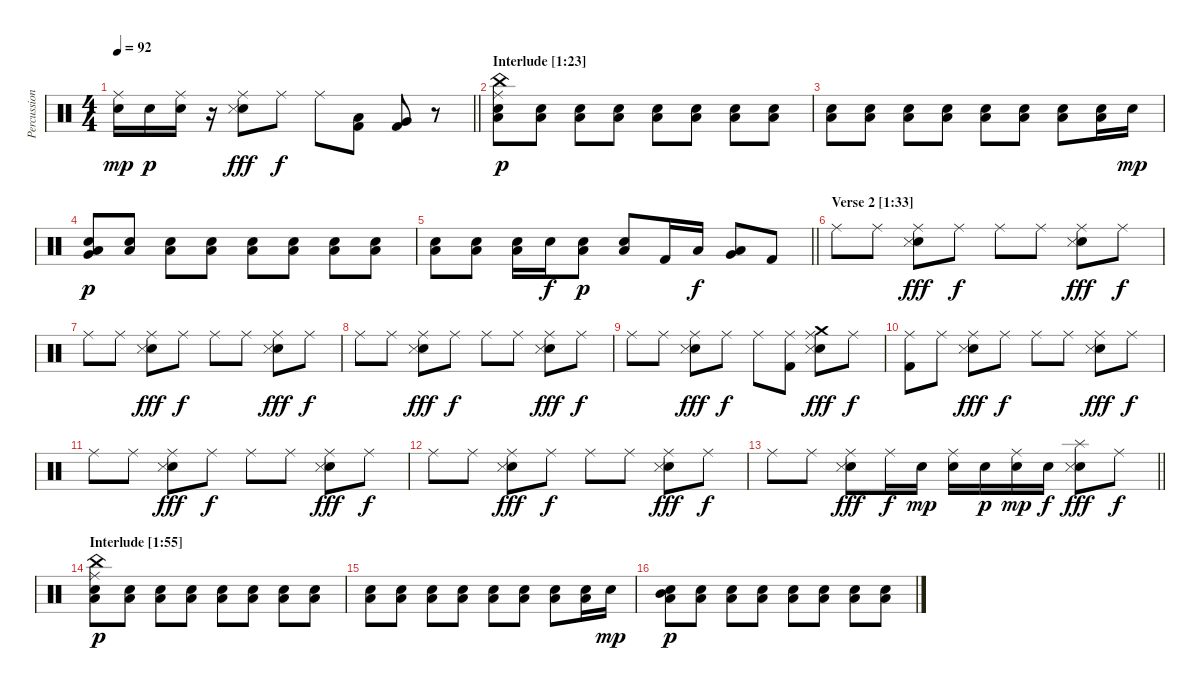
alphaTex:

\track ("Percussion" "Percussion") {instrument percussion}
\staff {score}
\articulation defaults
\ts (4 4)
\tempo 92
\clef neutral
\barLineRight lightlight
\ks c
("Ride (middle)" "Snare (hit) 2").16{dy mp} "Snare (hit) 2".16{dy p} ("Ride (middle)" "Snare (hit) 2").16 r.16 ("Ride (middle)" "Snare (hit) 2" "Snare (side stick) 3").8{dy fff} "Ride (middle)".8{dy f} "Ride (middle)".8 ("Low Tom (hit)" "Kick (hit) 2").8 ("Very Low Tom (hit)" "Kick (hit) 2").8 r.8 |
\section ("" "Interlude [1:23]")
("Ride (middle)" "China (hit)" "Low Tom (hit)" "Snare (hit) 2").8{dy p} ("Low Tom (hit)" "Snare (hit) 2").8 ("Low Tom (hit)" "Snare (hit) 2").8 ("Low Tom (hit)" "Snare (hit) 2").8 ("Low Tom (hit)" "Snare (hit) 2").8 ("Low Tom (hit)" "Snare (hit) 2").8 ("Low Tom (hit)" "Snare (hit) 2").8 ("Low Tom (hit)" "Snare (hit) 2").8 |
("Low Tom (hit)" "Snare (hit) 2").8 ("Low Tom (hit)" "Snare (hit) 2").8 ("Low Tom (hit)" "Snare (hit) 2").8 ("Low Tom (hit)" "Snare (hit) 2").8 ("Low Tom (hit)" "Snare (hit) 2").8 ("Low Tom (hit)" "Snare (hit) 2").8 ("Low Tom (hit)" "Snare (hit) 2").8 ("Low Tom (hit)" "Snare (hit) 2").16 "Snare (hit) 2".16{dy mp} |
("Very Low Tom (hit)" "Low Tom (hit)" "Snare (hit) 2").8{dy p} ("Low Tom (hit)" "Snare (hit) 2").8 ("Low Tom (hit)" "Snare (hit) 2").8 ("Low Tom (hit)" "Snare (hit) 2").8 ("Low Tom (hit)" "Snare (hit) 2").8 ("Low Tom (hit)" "Snare (hit) 2").8 ("Low Tom (hit)" "Snare (hit) 2").8 ("Low Tom (hit)" "Snare (hit) 2").8 |
\barLineRight lightlight
("Low Tom (hit)" "Snare (hit) 2").8 ("Snare (hit) 2" "Low Tom (hit)").8 ("Low Tom (hit)" "Snare (hit) 2").16 "Snare (hit) 2".16{dy f} ("Low Tom (hit)" "Snare (hit) 2").8{dy p} ("Snare (hit) 2" "Low Tom (hit)").8 "Kick (hit) 2".16 "Low Tom (hit)".16{dy f} ("Very Low Tom (hit)" "Low Tom (hit)").8 "Kick (hit) 2".8 |
\section ("" "Verse 2 [1:33]")
"Ride (middle)".8 "Ride (middle)".8 ("Ride (middle)" "Snare (hit) 2" "Snare (side stick) 3").8{dy fff} "Ride (middle)".8{dy f} "Ride (middle)".8 "Ride (middle)".8 ("Ride (middle)" "Snare (hit) 2" "Snare (side stick) 3").8{dy fff} "Ride (middle)".8{dy f} |
"Ride (middle)".8 "Ride (middle)".8 ("Ride (middle)" "Snare (hit) 2" "Snare (side stick) 3").8{dy fff} "Ride (middle)".8{dy f} "Ride (middle)".8 "Ride (middle)".8 ("Ride (middle)" "Snare (hit) 2" "Snare (side stick) 3").8{dy fff} "Ride (middle)".8{dy f} |
"Ride (middle)".8 "Ride (middle)".8 ("Ride (middle)" "Snare (hit) 2" "Snare (side stick) 3").8{dy fff} "Ride (middle)".8{dy f} "Ride (middle)".8 "Ride (middle)".8 ("Ride (middle)" "Snare (hit) 2" "Snare (side stick) 3").8{dy fff} "Ride (middle)".8{dy f} |
"Ride (middle)".8 "Ride (middle)".8 ("Ride (middle)" "Snare (hit) 2" "Snare (side stick) 3").8{dy fff} "Ride (middle)".8{dy f} "Ride (middle)".8 ("Ride (middle)" "Kick (hit) 2").8 ("Crash medium (hit)" "Ride (middle)" "Snare (hit) 2" "Snare (side stick) 3").8{dy fff} "Ride (middle)".8{dy f} |
("Ride (middle)" "Kick (hit) 2").8 "Ride (middle)".8 ("Ride (middle)" "Snare (hit) 2" "Snare (side stick) 3").8{dy fff} "Ride (middle)".8{dy f} "Ride (middle)".8 "Ride (middle)".8 ("Ride (middle)" "Snare (hit) 2" "Snare (side stick) 3").8{dy fff} "Ride (middle)".8{dy f} |
"Ride (middle)".8 "Ride (middle)".8 ("Ride (middle)" "Snare (hit) 2" "Snare (side stick) 3").8{dy fff} "Ride (middle)".8{dy f} "Ride (middle)".8 "Ride (middle)".8 ("Ride (middle)" "Snare (hit) 2" "Snare (side stick) 3").8{dy fff} "Ride (middle)".8{dy f} |
"Ride (middle)".8 "Ride (middle)".8 ("Ride (middle)" "Snare (hit) 2" "Snare (side stick) 3").8{dy fff} "Ride (middle)".8{dy f} "Ride (middle)".8 "Ride (middle)".8 ("Ride (middle)" "Snare (hit) 2" "Snare (side stick) 3").8{dy fff} "Ride (middle)".8{dy f} |
\barLineRight lightlight "Ride (middle)".8 "Ride (middle)".8
("Ride (middle)" "Snare (hit) 2" "Snare (side stick) 3").8{dy fff} "Ride (middle)".16{dy f} "Snare (hit) 2".16{dy mp} ("Ride (middle)" "Snare (hit) 2").16 "Snare (hit) 2".16{dy p} ("Ride (middle)" "Snare (hit) 2").16{dy mp} "Snare (hit) 2".16{dy f} ("Splash (hit)" "Snare (hit) 2" "Snare (side stick) 3").8{dy fff} "Ride (middle)".8{dy f} |
\section ("" "Interlude [1:55]")
("Ride (middle)" "China (hit)" "Low Tom (hit)" "Snare (hit) 2").8{dy p} ("Low Tom (hit)" "Snare (hit) 2").8 ("Low Tom (hit)" "Snare (hit) 2").8 ("Low Tom (hit)" "Snare (hit) 2").8 ("Low Tom (hit)" "Snare (hit) 2").8 ("Low Tom (hit)" "Snare (hit) 2").8 ("Low Tom (hit)" "Snare (hit) 2").8 ("Low Tom (hit)" "Snare (hit) 2").8 |
("Low Tom (hit)" "Snare (hit) 2").8 ("Low Tom (hit)" "Snare (hit) 2").8 ("Low Tom (hit)" "Snare (hit) 2").8 ("Low Tom (hit)" "Snare (hit) 2").8 ("Low Tom (hit)" "Snare (hit) 2").8 ("Low Tom (hit)" "Snare (hit) 2").8 ("Low Tom (hit)" "Snare (hit) 2").8 ("Low Tom (hit)" "Snare (hit) 2").16 "Snare (hit) 2".16{dy mp} |
("Mid Tom (hit)" "Low Tom (hit)" "Snare (hit) 2").8{dy p} ("Low Tom (hit)" "Snare (hit) 2").8 ("Low Tom (hit)" "Snare (hit) 2").8 ("Low Tom (hit)" "Snare (hit) 2").8 ("Low Tom (hit)" "Snare (hit) 2").8 ("Low Tom (hit)" "Snare (hit) 2").8 ("Low Tom (hit)" "Snare (hit) 2").8 ("Low Tom (hit)" "Snare (hit) 2").8
